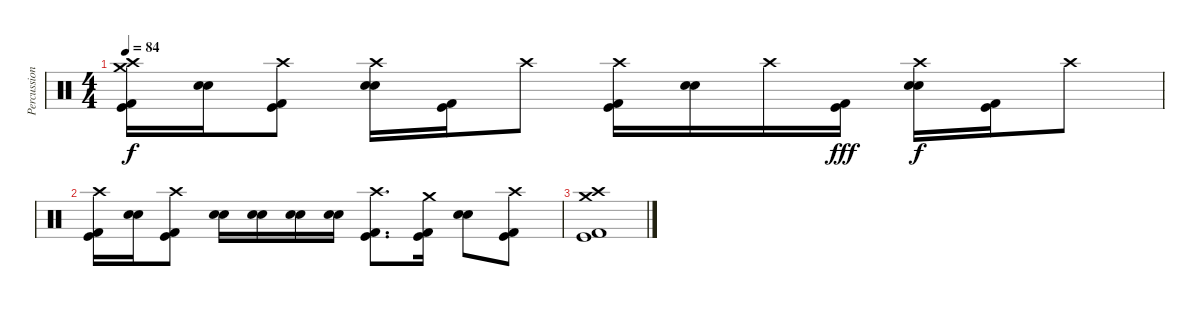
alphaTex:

\track ("Percussion" "Percussion") {instrument percussion}
\staff {score}
\articulation defaults
\ts (4 4)
\tempo 84
\clef neutral
\ks c
("Crash high (hit)" "Crash medium (hit)" "Kick (hit)" "Kick (hit) 2").16{dy f} ("Electric Snare (hit)" "Snare (hit) 2").16 ("Crash high (hit)" "Kick (hit)" "Kick (hit) 2").8 ("Crash high (hit)" "Electric Snare (hit)" "Snare (hit) 2").16 ("Kick (hit)" "Kick (hit) 2").16 "Crash high (hit)".8 ("Crash high (hit)" "Kick (hit)" "Kick (hit) 2").16 ("Electric Snare (hit)" "Snare (hit) 2").16 "Crash high (hit)".16 ("Kick (hit)" "Kick (hit) 2").16{dy fff} ("Crash high (hit)" "Electric Snare (hit)" "Snare (hit) 2").16{dy f} ("Kick (hit)" "Kick (hit) 2").16 "Crash high (hit)".8 |
("Crash high (hit)" "Kick (hit)" "Kick (hit) 2").16 ("Electric Snare (hit)" "Snare (hit) 2").16 ("Crash high (hit)" "Kick (hit)" "Kick (hit) 2").8 ("Electric Snare (hit)" "Snare (hit) 2").16 ("Electric Snare (hit)" "Snare (hit) 2").16 ("Electric Snare (hit)" "Snare (hit) 2").16 ("Electric Snare (hit)" "Snare (hit) 2").16 ("Crash high (hit)" "Kick (hit)" "Kick (hit) 2").8{d} ("Crash medium (hit)" "Kick (hit)" "Kick (hit) 2").16 ("Electric Snare (hit)" "Snare (hit) 2").8 ("Crash high (hit)" "Kick (hit)" "Kick (hit) 2").8 |
("Crash medium (hit)" "Crash high (hit)" "Kick (hit)" "Kick (hit) 2").1
